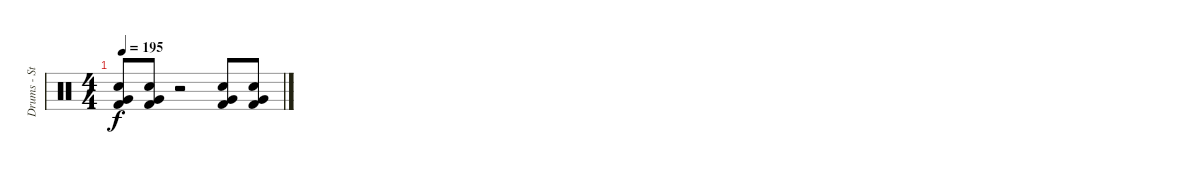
\track ("Drums - Steve" "Drums - St") {instrument percussion}
\staff {score}
\articulation defaults
\ts (4 4)
\tempo 195
\clef neutral
\ks c
("Snare (hit) 2" "Very Low Tom (hit)" "Kick (hit) 2").8{dy f} ("Snare (hit) 2" "Very Low Tom (hit)" "Kick (hit) 2").8 r.2 ("Snare (hit) 2" "Very Low Tom (hit)" "Kick (hit) 2").8 ("Snare (hit) 2" "Very Low Tom (hit)" "Kick (hit) 2").8
